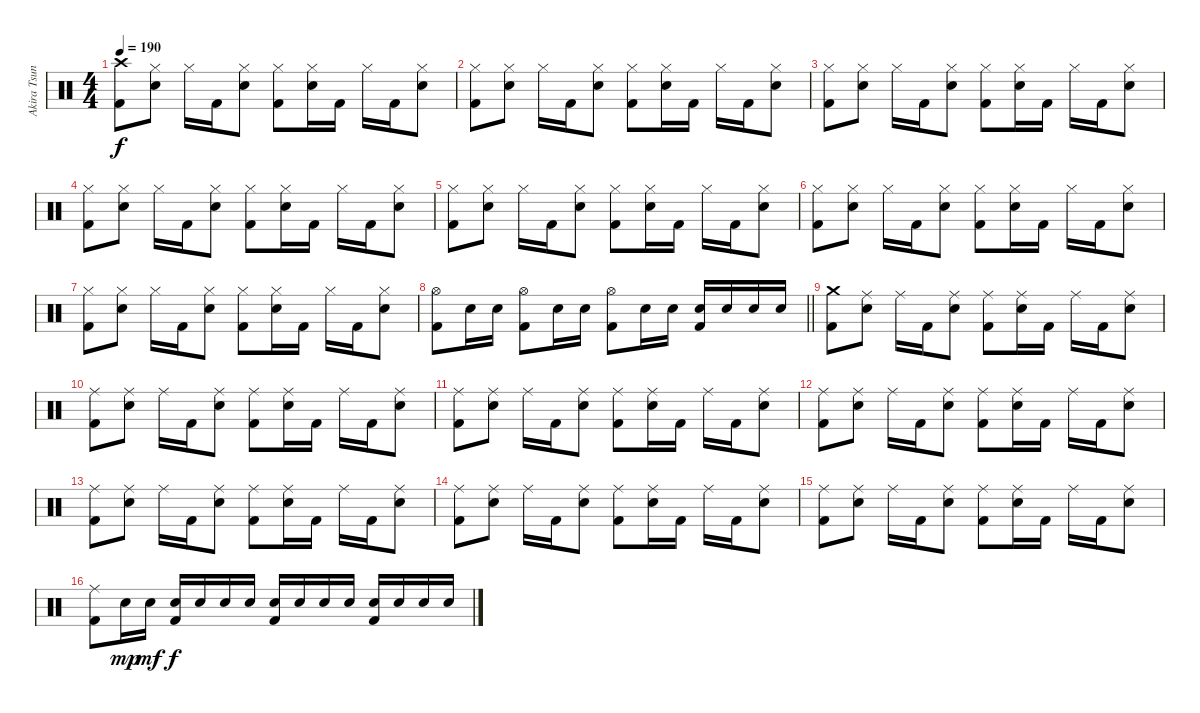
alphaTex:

\track ("Akira Tsuneoka" "Akira Tsun") {instrument percussion}
\staff {score}
\articulation defaults
\ts (4 4)
\tempo 190
\clef neutral
\ks c
("Crash high (hit)" "Kick (hit) 2").8{dy f} ("Hi-Hat (closed)" "Electric Snare (hit)").8 "Hi-Hat (closed)".16 "Kick (hit) 2".16 ("Hi-Hat (closed)" "Electric Snare (hit)").8 ("Hi-Hat (closed)" "Kick (hit) 2").8 ("Hi-Hat (closed)" "Electric Snare (hit)").16 "Kick (hit) 2".16 "Hi-Hat (closed)".16 "Kick (hit) 2".16 ("Hi-Hat (closed)" "Electric Snare (hit)").8 |
("Hi-Hat (closed)" "Kick (hit) 2").8 ("Hi-Hat (closed)" "Electric Snare (hit)").8 "Hi-Hat (closed)".16 "Kick (hit) 2".16 ("Hi-Hat (closed)" "Electric Snare (hit)").8 ("Hi-Hat (closed)" "Kick (hit) 2").8 ("Hi-Hat (closed)" "Electric Snare (hit)").16 "Kick (hit) 2".16 "Hi-Hat (closed)".16 "Kick (hit) 2".16 ("Hi-Hat (closed)" "Electric Snare (hit)").8 |
("Hi-Hat (closed)" "Kick (hit) 2").8 ("Hi-Hat (closed)" "Electric Snare (hit)").8 "Hi-Hat (closed)".16 "Kick (hit) 2".16 ("Hi-Hat (closed)" "Electric Snare (hit)").8 ("Hi-Hat (closed)" "Kick (hit) 2").8 ("Hi-Hat (closed)" "Electric Snare (hit)").16 "Kick (hit) 2".16 "Hi-Hat (closed)".16 "Kick (hit) 2".16 ("Hi-Hat (closed)" "Electric Snare (hit)").8 |
("Hi-Hat (closed)" "Kick (hit) 2").8 ("Hi-Hat (closed)" "Electric Snare (hit)").8 "Hi-Hat (closed)".16 "Kick (hit) 2".16 ("Hi-Hat (closed)" "Electric Snare (hit)").8 ("Hi-Hat (closed)" "Kick (hit) 2").8 ("Hi-Hat (closed)" "Electric Snare (hit)").16 "Kick (hit) 2".16 "Hi-Hat (closed)".16 "Kick (hit) 2".16 ("Hi-Hat (closed)" "Electric Snare (hit)").8 |
("Hi-Hat (closed)" "Kick (hit) 2").8 ("Hi-Hat (closed)" "Electric Snare (hit)").8 "Hi-Hat (closed)".16 "Kick (hit) 2".16 ("Hi-Hat (closed)" "Electric Snare (hit)").8 ("Hi-Hat (closed)" "Kick (hit) 2").8 ("Hi-Hat (closed)" "Electric Snare (hit)").16 "Kick (hit) 2".16 "Hi-Hat (closed)".16 "Kick (hit) 2".16 ("Hi-Hat (closed)" "Electric Snare (hit)").8 |
("Hi-Hat (closed)" "Kick (hit) 2").8 ("Hi-Hat (closed)" "Electric Snare (hit)").8 "Hi-Hat (closed)".16 "Kick (hit) 2".16 ("Hi-Hat (closed)" "Electric Snare (hit)").8 ("Hi-Hat (closed)" "Kick (hit) 2").8 ("Hi-Hat (closed)" "Electric Snare (hit)").16 "Kick (hit) 2".16 "Hi-Hat (closed)".16 "Kick (hit) 2".16 ("Hi-Hat (closed)" "Electric Snare (hit)").8 |
("Hi-Hat (closed)" "Kick (hit) 2").8 ("Hi-Hat (closed)" "Electric Snare (hit)").8 "Hi-Hat (closed)".16 "Kick (hit) 2".16 ("Hi-Hat (closed)" "Electric Snare (hit)").8 ("Hi-Hat (closed)" "Kick (hit) 2").8 ("Hi-Hat (closed)" "Electric Snare (hit)").16 "Kick (hit) 2".16 "Hi-Hat (closed)".16 "Kick (hit) 2".16 ("Hi-Hat (closed)" "Electric Snare (hit)").8 |
\barLineRight lightlight
("Hi-Hat (open)" "Kick (hit) 2").8 "Electric Snare (hit)".16 "Electric Snare (hit)".16 ("Hi-Hat (open)" "Kick (hit) 2").8 "Electric Snare (hit)".16 "Electric Snare (hit)".16 ("Hi-Hat (open)" "Kick (hit) 2").8 "Electric Snare (hit)".16 "Electric Snare (hit)".16 ("Electric Snare (hit)" "Kick (hit) 2").16 "Electric Snare (hit)".16 "Electric Snare (hit)".16 "Electric Snare (hit)".16 |
\section ("" "")
("Crash medium (hit)" "Kick (hit) 2").8 ("Ride (middle)" "Electric Snare (hit)").8 "Ride (middle)".16 "Kick (hit) 2".16 ("Ride (middle)" "Electric Snare (hit)").8 ("Ride (middle)" "Kick (hit) 2").8 ("Ride (middle)" "Electric Snare (hit)").16 "Kick (hit) 2".16 "Ride (middle)".16 "Kick (hit) 2".16 ("Ride (middle)" "Electric Snare (hit)").8 |
("Ride (middle)" "Kick (hit) 2").8 ("Ride (middle)" "Electric Snare (hit)").8 "Ride (middle)".16 "Kick (hit) 2".16 ("Ride (middle)" "Electric Snare (hit)").8 ("Ride (middle)" "Kick (hit) 2").8 ("Ride (middle)" "Electric Snare (hit)").16 "Kick (hit) 2".16 "Ride (middle)".16 "Kick (hit) 2".16 ("Ride (middle)" "Electric Snare (hit)").8 |
("Ride (middle)" "Kick (hit) 2").8 ("Ride (middle)" "Electric Snare (hit)").8 "Ride (middle)".16 "Kick (hit) 2".16 ("Ride (middle)" "Electric Snare (hit)").8 ("Ride (middle)" "Kick (hit) 2").8 ("Ride (middle)" "Electric Snare (hit)").16 "Kick (hit) 2".16 "Ride (middle)".16 "Kick (hit) 2".16 ("Ride (middle)" "Electric Snare (hit)").8 |
("Ride (middle)" "Kick (hit) 2").8 ("Ride (middle)" "Electric Snare (hit)").8 "Ride (middle)".16 "Kick (hit) 2".16 ("Ride (middle)" "Electric Snare (hit)").8 ("Ride (middle)" "Kick (hit) 2").8 ("Ride (middle)" "Electric Snare (hit)").16 "Kick (hit) 2".16 "Ride (middle)".16 "Kick (hit) 2".16 ("Ride (middle)" "Electric Snare (hit)").8 |
("Ride (middle)" "Kick (hit) 2").8 ("Ride (middle)" "Electric Snare (hit)").8 "Ride (middle)".16 "Kick (hit) 2".16 ("Ride (middle)" "Electric Snare (hit)").8 ("Ride (middle)" "Kick (hit) 2").8 ("Ride (middle)" "Electric Snare (hit)").16 "Kick (hit) 2".16 "Ride (middle)".16 "Kick (hit) 2".16 ("Ride (middle)" "Electric Snare (hit)").8 |
("Ride (middle)" "Kick (hit) 2").8 ("Ride (middle)" "Electric Snare (hit)").8 "Ride (middle)".16 "Kick (hit) 2".16 ("Ride (middle)" "Electric Snare (hit)").8 ("Ride (middle)" "Kick (hit) 2").8 ("Ride (middle)" "Electric Snare (hit)").16 "Kick (hit) 2".16 "Ride (middle)".16 "Kick (hit) 2".16 ("Ride (middle)" "Electric Snare (hit)").8 |
("Ride (middle)" "Kick (hit) 2").8 ("Ride (middle)" "Electric Snare (hit)").8 "Ride (middle)".16 "Kick (hit) 2".16 ("Ride (middle)" "Electric Snare (hit)").8 ("Ride (middle)" "Kick (hit) 2").8 ("Ride (middle)" "Electric Snare (hit)").16 "Kick (hit) 2".16 "Ride (middle)".16 "Kick (hit) 2".16 ("Ride (middle)" "Electric Snare (hit)").8 |
("Ride (middle)" "Kick (hit) 2").8 "Electric Snare (hit)".16{dy mp} "Electric Snare (hit)".16{dy mf} ("Electric Snare (hit)" "Kick (hit) 2").16{dy f} "Electric Snare (hit)".16 "Electric Snare (hit)".16 "Electric Snare (hit)".16 ("Electric Snare (hit)" "Kick (hit) 2").16 "Electric Snare (hit)".16 "Electric Snare (hit)".16 "Electric Snare (hit)".16 ("Electric Snare (hit)" "Kick (hit) 2").16 "Electric Snare (hit)".16 "Electric Snare (hit)".16 "Electric Snare (hit)".16
